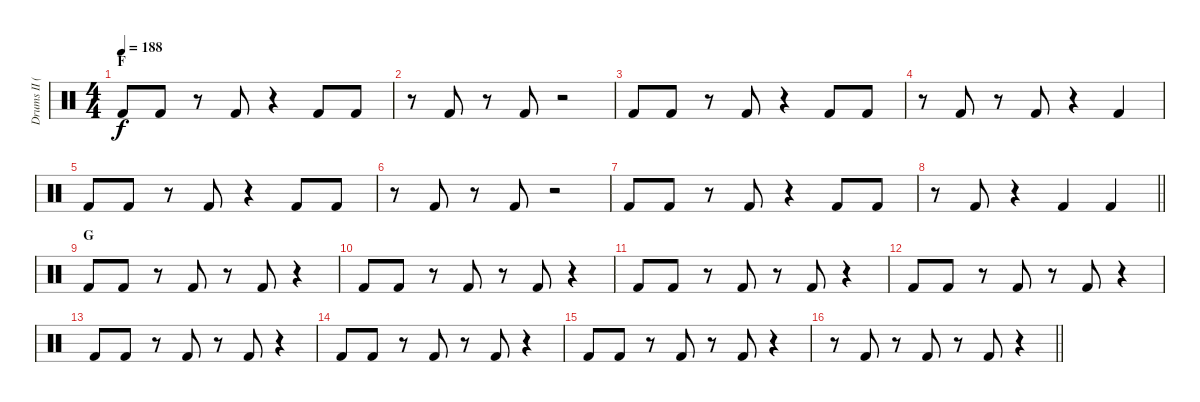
\track ("Drums II (Ruka)" "Drums II (") {instrument percussion}
\staff {score}
\articulation defaults
\ts (4 4)
\section ("" "F")
\tempo 188
\clef neutral
\ks c "Kick (hit) 2".8{dy f} "Kick (hit) 2".8
r.8 "Kick (hit) 2".8 r.4 "Kick (hit) 2".8 "Kick (hit) 2".8 |
r.8 "Kick (hit) 2".8 r.8 "Kick (hit) 2".8 r.2 |
"Kick (hit) 2".8 "Kick (hit) 2".8 r.8 "Kick (hit) 2".8 r.4 "Kick (hit) 2".8 "Kick (hit) 2".8 |
r.8 "Kick (hit) 2".8 r.8 "Kick (hit) 2".8 r.4 "Kick (hit) 2".4 |
"Kick (hit) 2".8 "Kick (hit) 2".8 r.8 "Kick (hit) 2".8 r.4 "Kick (hit) 2".8 "Kick (hit) 2".8 |
r.8 "Kick (hit) 2".8 r.8 "Kick (hit) 2".8 r.2 |
"Kick (hit) 2".8 "Kick (hit) 2".8 r.8 "Kick (hit) 2".8 r.4 "Kick (hit) 2".8 "Kick (hit) 2".8 |
\barLineRight lightlight
r.8 "Kick (hit) 2".8 r.4 "Kick (hit) 2".4 "Kick (hit) 2".4 |
\section ("" "G")
"Kick (hit) 2".8 "Kick (hit) 2".8 r.8 "Kick (hit) 2".8 r.8 "Kick (hit) 2".8 r.4 |
"Kick (hit) 2".8 "Kick (hit) 2".8 r.8 "Kick (hit) 2".8 r.8 "Kick (hit) 2".8 r.4 |
"Kick (hit) 2".8 "Kick (hit) 2".8 r.8 "Kick (hit) 2".8 r.8 "Kick (hit) 2".8 r.4 |
"Kick (hit) 2".8 "Kick (hit) 2".8 r.8 "Kick (hit) 2".8 r.8 "Kick (hit) 2".8 r.4 |
"Kick (hit) 2".8 "Kick (hit) 2".8 r.8 "Kick (hit) 2".8 r.8 "Kick (hit) 2".8 r.4 |
"Kick (hit) 2".8 "Kick (hit) 2".8 r.8 "Kick (hit) 2".8 r.8 "Kick (hit) 2".8 r.4 |
"Kick (hit) 2".8 "Kick (hit) 2".8 r.8 "Kick (hit) 2".8 r.8 "Kick (hit) 2".8 r.4 |
\barLineRight lightlight
r.8 "Kick (hit) 2".8 r.8 "Kick (hit) 2".8 r.8 "Kick (hit) 2".8 r.4
